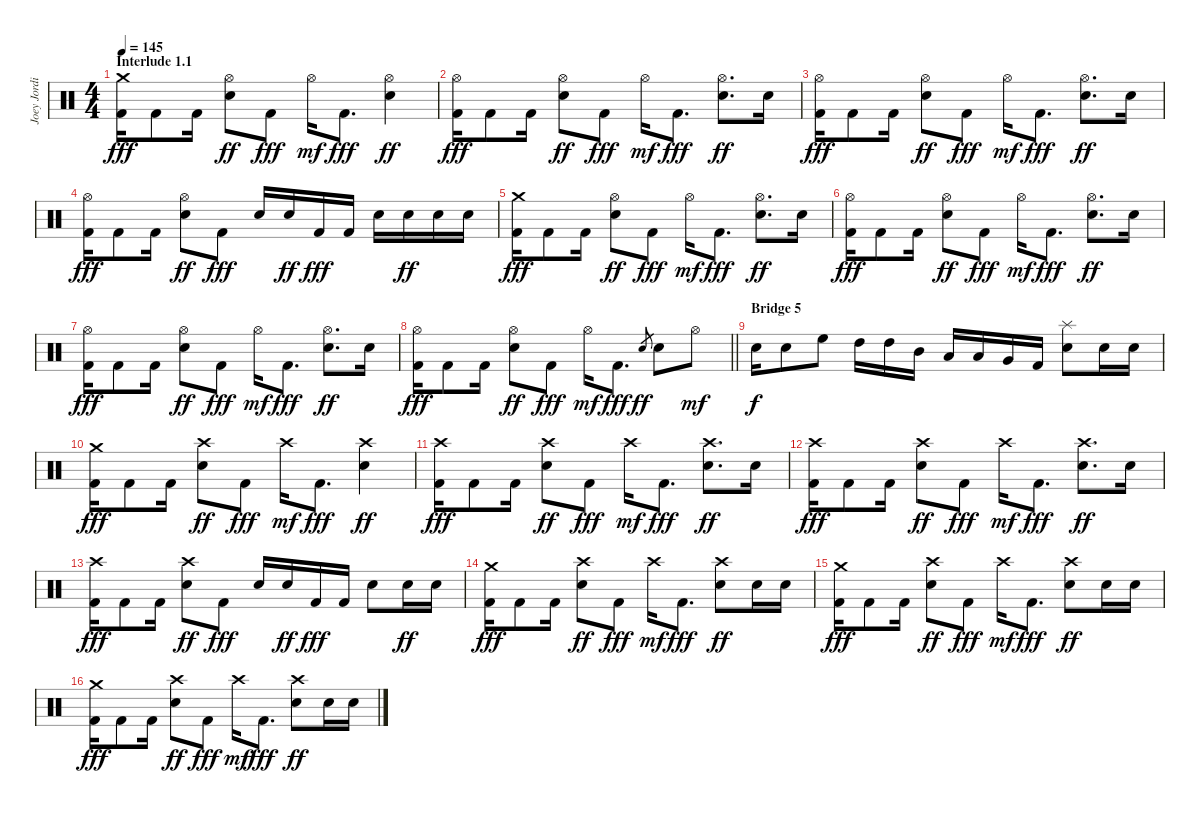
\track ("Joey Jordison" "Joey Jordi") {instrument percussion}
\staff {score}
\articulation defaults
\ts (4 4)
\section ("" "Interlude 1.1")
\tempo 145
\clef neutral
\ks c
("Crash medium (hit)" "Kick (hit) 2").16{dy fff} "Kick (hit) 2".8 "Kick (hit) 2".16 ("Hi-Hat (open)" "Electric Snare (hit)").8{dy ff} "Kick (hit) 2".8{dy fff} "Hi-Hat (open)".16{dy mf} "Kick (hit) 2".8{d dy fff} ("Hi-Hat (open)" "Electric Snare (hit)").4{dy ff} |
("Hi-Hat (open)" "Kick (hit) 2").16{dy fff} "Kick (hit) 2".8 "Kick (hit) 2".16 ("Hi-Hat (open)" "Electric Snare (hit)").8{dy ff} "Kick (hit) 2".8{dy fff} "Hi-Hat (open)".16{dy mf} "Kick (hit) 2".8{d dy fff} ("Hi-Hat (open)" "Electric Snare (hit)").8{d dy ff} "Electric Snare (hit)".16 |
("Hi-Hat (open)" "Kick (hit) 2").16{dy fff} "Kick (hit) 2".8 "Kick (hit) 2".16 ("Hi-Hat (open)" "Electric Snare (hit)").8{dy ff} "Kick (hit) 2".8{dy fff} "Hi-Hat (open)".16{dy mf} "Kick (hit) 2".8{d dy fff} ("Hi-Hat (open)" "Electric Snare (hit)").8{d dy ff} "Electric Snare (hit)".16 |
("Hi-Hat (open)" "Kick (hit) 2").16{dy fff} "Kick (hit) 2".8 "Kick (hit) 2".16 ("Hi-Hat (open)" "Electric Snare (hit)").8{dy ff} "Kick (hit) 2".8{dy fff} "Electric Snare (hit)".16 "Electric Snare (hit)".16{dy ff} "Kick (hit) 2".16{dy fff} "Kick (hit) 2".16 "Electric Snare (hit)".16 "Electric Snare (hit)".16{dy ff} "Electric Snare (hit)".16 "Electric Snare (hit)".16 |
("Crash medium (hit)" "Kick (hit) 2").16{dy fff} "Kick (hit) 2".8 "Kick (hit) 2".16 ("Hi-Hat (open)" "Electric Snare (hit)").8{dy ff} "Kick (hit) 2".8{dy fff} "Hi-Hat (open)".16{dy mf} "Kick (hit) 2".8{d dy fff} ("Hi-Hat (open)" "Electric Snare (hit)").8{d dy ff} "Electric Snare (hit)".16 |
("Hi-Hat (open)" "Kick (hit) 2").16{dy fff} "Kick (hit) 2".8 "Kick (hit) 2".16 ("Hi-Hat (open)" "Electric Snare (hit)").8{dy ff} "Kick (hit) 2".8{dy fff} "Hi-Hat (open)".16{dy mf} "Kick (hit) 2".8{d dy fff} ("Hi-Hat (open)" "Electric Snare (hit)").8{d dy ff} "Electric Snare (hit)".16 |
("Hi-Hat (open)" "Kick (hit) 2").16{dy fff} "Kick (hit) 2".8 "Kick (hit) 2".16 ("Hi-Hat (open)" "Electric Snare (hit)").8{dy ff} "Kick (hit) 2".8{dy fff} "Hi-Hat (open)".16{dy mf} "Kick (hit) 2".8{d dy fff} ("Hi-Hat (open)" "Electric Snare (hit)").8{d dy ff} "Electric Snare (hit)".16 |
\barLineRight lightlight
("Hi-Hat (open)" "Kick (hit) 2").16{dy fff} "Kick (hit) 2".8 "Kick (hit) 2".16 ("Hi-Hat (open)" "Electric Snare (hit)").8{dy ff} "Kick (hit) 2".8{dy fff} "Hi-Hat (open)".16{dy mf} "Kick (hit) 2".8{d dy fff} "Electric Snare (hit)".8{gr dy ff} "Electric Snare (hit)".8 "Hi-Hat (open)".8{dy mf} |
\section ("" "Bridge 5")
"Electric Snare (hit)".16{dy f} "Electric Snare (hit)".8 "High Floor Tom (hit)".8 "High Tom (hit)".16 "High Tom (hit)".16 "Mid Tom (hit)".16 "Low Tom (hit)".16 "Low Tom (hit)".16 "Very Low Tom (hit)".16 "Kick (hit) 2".16 ("Splash (hit)" "Electric Snare (hit)").8 "Electric Snare (hit)".16 "Electric Snare (hit)".16 |
("Crash medium (hit)" "Kick (hit) 2").16{dy fff} "Kick (hit) 2".8 "Kick (hit) 2".16 ("Crash high (hit)" "Electric Snare (hit)").8{dy ff} "Kick (hit) 2".8{dy fff} "Crash high (hit)".16{dy mf} "Kick (hit) 2".8{d dy fff} ("Crash high (hit)" "Electric Snare (hit)").4{dy ff} |
("Crash high (hit)" "Kick (hit) 2").16{dy fff} "Kick (hit) 2".8 "Kick (hit) 2".16 ("Crash high (hit)" "Electric Snare (hit)").8{dy ff} "Kick (hit) 2".8{dy fff} "Crash high (hit)".16{dy mf} "Kick (hit) 2".8{d dy fff} ("Crash high (hit)" "Electric Snare (hit)").8{d dy ff} "Electric Snare (hit)".16 |
("Crash high (hit)" "Kick (hit) 2").16{dy fff} "Kick (hit) 2".8 "Kick (hit) 2".16 ("Crash high (hit)" "Electric Snare (hit)").8{dy ff} "Kick (hit) 2".8{dy fff} "Crash high (hit)".16{dy mf} "Kick (hit) 2".8{d dy fff} ("Crash high (hit)" "Electric Snare (hit)").8{d dy ff} "Electric Snare (hit)".16 |
("Crash high (hit)" "Kick (hit) 2").16{dy fff} "Kick (hit) 2".8 "Kick (hit) 2".16 ("Crash high (hit)" "Electric Snare (hit)").8{dy ff} "Kick (hit) 2".8{dy fff} "Electric Snare (hit)".16 "Electric Snare (hit)".16{dy ff} "Kick (hit) 2".16{dy fff} "Kick (hit) 2".16 "Electric Snare (hit)".8 "Electric Snare (hit)".16{dy ff} "Electric Snare (hit)".16 |
("Crash medium (hit)" "Kick (hit) 2").16{dy fff} "Kick (hit) 2".8 "Kick (hit) 2".16 ("Crash high (hit)" "Electric Snare (hit)").8{dy ff} "Kick (hit) 2".8{dy fff} "Crash high (hit)".16{dy mf} "Kick (hit) 2".8{d dy fff} ("Crash high (hit)" "Electric Snare (hit)").8{dy ff} "Electric Snare (hit)".16 "Electric Snare (hit)".16 |
("Crash medium (hit)" "Kick (hit) 2").16{dy fff} "Kick (hit) 2".8 "Kick (hit) 2".16 ("Crash high (hit)" "Electric Snare (hit)").8{dy ff} "Kick (hit) 2".8{dy fff} "Crash high (hit)".16{dy mf} "Kick (hit) 2".8{d dy fff} ("Crash high (hit)" "Electric Snare (hit)").8{dy ff} "Electric Snare (hit)".16 "Electric Snare (hit)".16 |
("Crash medium (hit)" "Kick (hit) 2").16{dy fff} "Kick (hit) 2".8 "Kick (hit) 2".16 ("Crash high (hit)" "Electric Snare (hit)").8{dy ff} "Kick (hit) 2".8{dy fff} "Crash high (hit)".16{dy mf} "Kick (hit) 2".8{d dy fff} ("Crash high (hit)" "Electric Snare (hit)").8{dy ff} "Electric Snare (hit)".16 "Electric Snare (hit)".16
